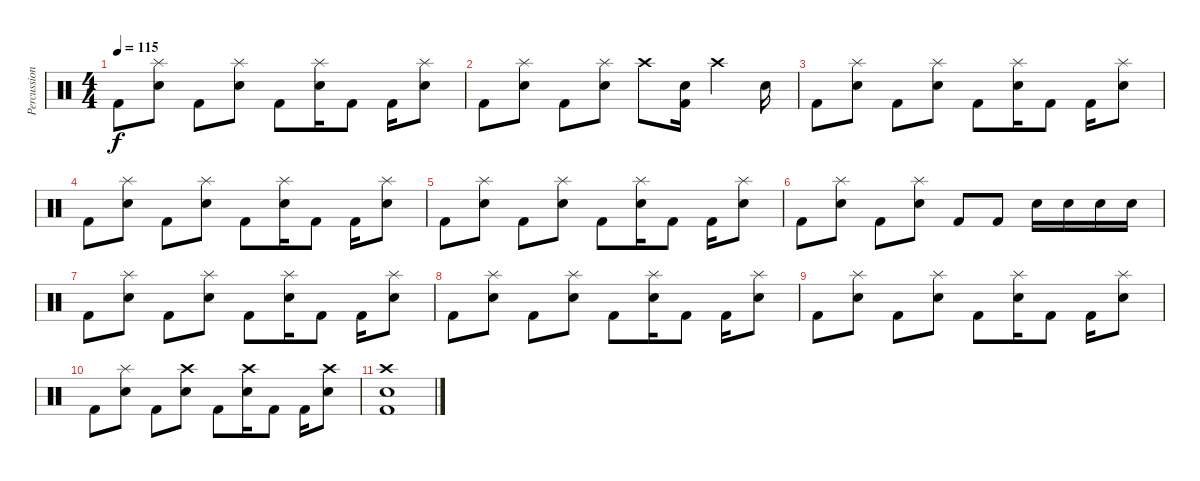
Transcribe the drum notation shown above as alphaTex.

\track ("Percussion" "Percussion") {instrument percussion}
\staff {score}
\articulation defaults
\ts (4 4)
\tempo 115
\clef neutral
\ks c "Kick (hit) 2".8{dy f}
("Splash (hit)" "Snare (hit) 2").8 "Kick (hit) 2".8 ("Splash (hit)" "Snare (hit) 2").8 "Kick (hit) 2".8 ("Splash (hit)" "Snare (hit) 2").16 "Kick (hit) 2".8 "Kick (hit) 2".16 ("Splash (hit)" "Snare (hit) 2").8 |
"Kick (hit) 2".8 ("Splash (hit)" "Snare (hit) 2").8 "Kick (hit) 2".8 ("Splash (hit)" "Snare (hit) 2").8 "Crash high (hit)".8 ("Snare (hit) 2" "Kick (hit) 2").16 "Crash high (hit)".4 "Snare (hit) 2".16 |
"Kick (hit) 2".8 ("Splash (hit)" "Snare (hit) 2").8 "Kick (hit) 2".8 ("Splash (hit)" "Snare (hit) 2").8 "Kick (hit) 2".8 ("Splash (hit)" "Snare (hit) 2").16 "Kick (hit) 2".8 "Kick (hit) 2".16 ("Splash (hit)" "Snare (hit) 2").8 |
"Kick (hit) 2".8 ("Splash (hit)" "Snare (hit) 2").8 "Kick (hit) 2".8 ("Splash (hit)" "Snare (hit) 2").8 "Kick (hit) 2".8 ("Splash (hit)" "Snare (hit) 2").16 "Kick (hit) 2".8 "Kick (hit) 2".16 ("Splash (hit)" "Snare (hit) 2").8 |
"Kick (hit) 2".8 ("Splash (hit)" "Snare (hit) 2").8 "Kick (hit) 2".8 ("Splash (hit)" "Snare (hit) 2").8 "Kick (hit) 2".8 ("Splash (hit)" "Snare (hit) 2").16 "Kick (hit) 2".8 "Kick (hit) 2".16 ("Splash (hit)" "Snare (hit) 2").8 |
"Kick (hit) 2".8 ("Splash (hit)" "Snare (hit) 2").8 "Kick (hit) 2".8 ("Splash (hit)" "Snare (hit) 2").8 "Kick (hit) 2".8 "Kick (hit) 2".8 "Snare (hit) 2".16 "Snare (hit) 2".16 "Snare (hit) 2".16 "Snare (hit) 2".16 |
"Kick (hit) 2".8 ("Splash (hit)" "Snare (hit) 2").8 "Kick (hit) 2".8 ("Splash (hit)" "Snare (hit) 2").8 "Kick (hit) 2".8 ("Splash (hit)" "Snare (hit) 2").16 "Kick (hit) 2".8 "Kick (hit) 2".16 ("Splash (hit)" "Snare (hit) 2").8 |
"Kick (hit) 2".8 ("Splash (hit)" "Snare (hit) 2").8 "Kick (hit) 2".8 ("Splash (hit)" "Snare (hit) 2").8 "Kick (hit) 2".8 ("Splash (hit)" "Snare (hit) 2").16 "Kick (hit) 2".8 "Kick (hit) 2".16 ("Splash (hit)" "Snare (hit) 2").8 |
"Kick (hit) 2".8 ("Splash (hit)" "Snare (hit) 2").8 "Kick (hit) 2".8 ("Splash (hit)" "Snare (hit) 2").8 "Kick (hit) 2".8 ("Splash (hit)" "Snare (hit) 2").16 "Kick (hit) 2".8 "Kick (hit) 2".16 ("Splash (hit)" "Snare (hit) 2").8 |
"Kick (hit) 2".8 ("Splash (hit)" "Snare (hit) 2").8 "Kick (hit) 2".8 ("Crash high (hit)" "Snare (hit) 2").8 "Kick (hit) 2".8 ("Crash high (hit)" "Snare (hit) 2").16 "Kick (hit) 2".8 "Kick (hit) 2".16 ("Crash high (hit)" "Snare (hit) 2").8 |
("Crash high (hit)" "Snare (hit) 2" "Kick (hit) 2").1
